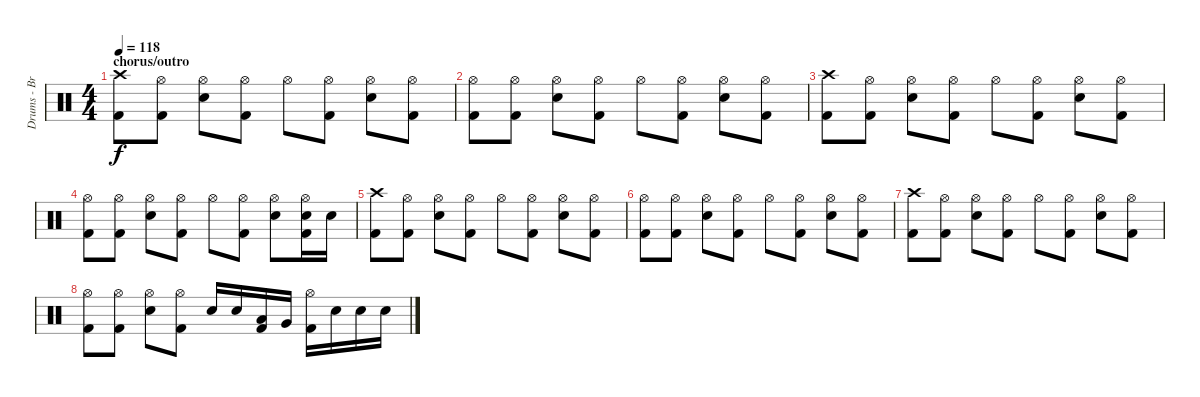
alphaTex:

\track ("Drums - Brian Young" "Drums - Br") {instrument percussion}
\staff {score}
\articulation defaults
\ts (4 4)
\section ("" "chorus/outro")
\tempo 118
\clef neutral
\ks c
("Crash high (hit)" "Kick (hit) 2").8{dy f} ("Hi-Hat (open)" "Kick (hit) 2").8 ("Hi-Hat (open)" "Electric Snare (hit)").8 ("Hi-Hat (open)" "Kick (hit) 2").8 "Hi-Hat (open)".8 ("Hi-Hat (open)" "Kick (hit) 2").8 ("Hi-Hat (open)" "Electric Snare (hit)").8 ("Hi-Hat (open)" "Kick (hit) 2").8 |
("Hi-Hat (open)" "Kick (hit) 2").8 ("Hi-Hat (open)" "Kick (hit) 2").8 ("Hi-Hat (open)" "Electric Snare (hit)").8 ("Hi-Hat (open)" "Kick (hit) 2").8 "Hi-Hat (open)".8 ("Hi-Hat (open)" "Kick (hit) 2").8 ("Hi-Hat (open)" "Electric Snare (hit)").8 ("Hi-Hat (open)" "Kick (hit) 2").8 |
("Crash high (hit)" "Kick (hit) 2").8 ("Hi-Hat (open)" "Kick (hit) 2").8 ("Hi-Hat (open)" "Electric Snare (hit)").8 ("Hi-Hat (open)" "Kick (hit) 2").8 "Hi-Hat (open)".8 ("Hi-Hat (open)" "Kick (hit) 2").8 ("Hi-Hat (open)" "Electric Snare (hit)").8 ("Hi-Hat (open)" "Kick (hit) 2").8 |
("Hi-Hat (open)" "Kick (hit) 2").8 ("Hi-Hat (open)" "Kick (hit) 2").8 ("Hi-Hat (open)" "Electric Snare (hit)").8 ("Hi-Hat (open)" "Kick (hit) 2").8 "Hi-Hat (open)".8 ("Hi-Hat (open)" "Kick (hit) 2").8 ("Hi-Hat (open)" "Electric Snare (hit)").8 ("Hi-Hat (open)" "Electric Snare (hit)" "Kick (hit) 2").16 "Electric Snare (hit)".16 |
("Crash high (hit)" "Kick (hit) 2").8 ("Hi-Hat (open)" "Kick (hit) 2").8 ("Hi-Hat (open)" "Electric Snare (hit)").8 ("Hi-Hat (open)" "Kick (hit) 2").8 "Hi-Hat (open)".8 ("Hi-Hat (open)" "Kick (hit) 2").8 ("Hi-Hat (open)" "Electric Snare (hit)").8 ("Hi-Hat (open)" "Kick (hit) 2").8 |
("Hi-Hat (open)" "Kick (hit) 2").8 ("Hi-Hat (open)" "Kick (hit) 2").8 ("Hi-Hat (open)" "Electric Snare (hit)").8 ("Hi-Hat (open)" "Kick (hit) 2").8 "Hi-Hat (open)".8 ("Hi-Hat (open)" "Kick (hit) 2").8 ("Hi-Hat (open)" "Electric Snare (hit)").8 ("Hi-Hat (open)" "Kick (hit) 2").8 |
("Crash high (hit)" "Kick (hit) 2").8 ("Hi-Hat (open)" "Kick (hit) 2").8 ("Hi-Hat (open)" "Electric Snare (hit)").8 ("Hi-Hat (open)" "Kick (hit) 2").8 "Hi-Hat (open)".8 ("Hi-Hat (open)" "Kick (hit) 2").8 ("Hi-Hat (open)" "Electric Snare (hit)").8 ("Hi-Hat (open)" "Kick (hit) 2").8 |
("Hi-Hat (open)" "Kick (hit) 2").8 ("Hi-Hat (open)" "Kick (hit) 2").8 ("Hi-Hat (open)" "Electric Snare (hit)").8 ("Hi-Hat (open)" "Kick (hit) 2").8 "Electric Snare (hit)".16 "Electric Snare (hit)".16 ("Low Tom (hit)" "Kick (hit) 2").16 "Very Low Tom (hit)".16 ("Hi-Hat (open)" "Kick (hit) 2").16 "Electric Snare (hit)".16 "Electric Snare (hit)".16 "Electric Snare (hit)".16
